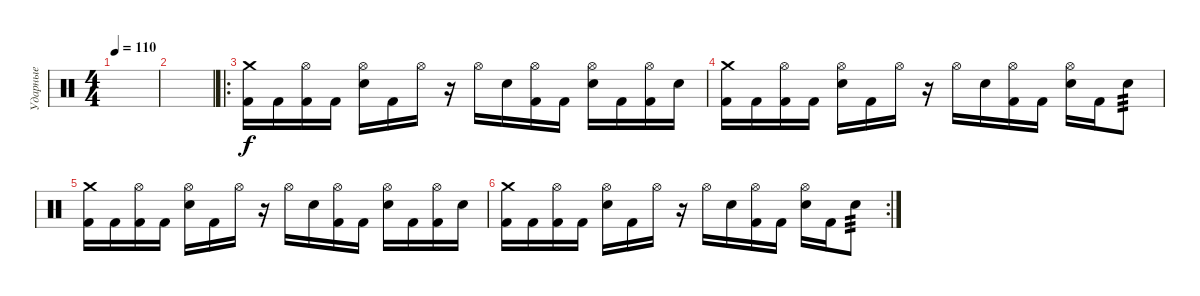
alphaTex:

\track ("Ударные" "Ударные") {instrument percussion}
\staff {score}
\articulation defaults
\ts (4 4)
\tempo 110
\clef neutral
\ks c
|
|
\ro
("Crash medium (hit)" "Kick (hit) 2").16 "Kick (hit) 2".16 ("Hi-Hat (open)" "Kick (hit) 2").16 "Kick (hit) 2".16 ("Hi-Hat (open)" "Electric Snare (hit)").16 "Kick (hit) 2".16 "Hi-Hat (open)".16 r.16 "Hi-Hat (open)".16 "Electric Snare (hit)".16 ("Hi-Hat (open)" "Kick (hit) 2").16 "Kick (hit) 2".16 ("Hi-Hat (open)" "Electric Snare (hit)").16 "Kick (hit) 2".16 ("Hi-Hat (open)" "Kick (hit) 2").16 "Electric Snare (hit)".16 |
("Crash medium (hit)" "Kick (hit) 2").16 "Kick (hit) 2".16 ("Hi-Hat (open)" "Kick (hit) 2").16 "Kick (hit) 2".16 ("Hi-Hat (open)" "Electric Snare (hit)").16 "Kick (hit) 2".16 "Hi-Hat (open)".16 r.16 "Hi-Hat (open)".16 "Electric Snare (hit)".16 ("Hi-Hat (open)" "Kick (hit) 2").16 "Kick (hit) 2".16 ("Hi-Hat (open)" "Electric Snare (hit)").16 "Kick (hit) 2".16 "Electric Snare (hit)".8{tp 3} |
("Crash medium (hit)" "Kick (hit) 2").16 "Kick (hit) 2".16 ("Hi-Hat (open)" "Kick (hit) 2").16 "Kick (hit) 2".16 ("Hi-Hat (open)" "Electric Snare (hit)").16 "Kick (hit) 2".16 "Hi-Hat (open)".16 r.16 "Hi-Hat (open)".16 "Electric Snare (hit)".16 ("Hi-Hat (open)" "Kick (hit) 2").16 "Kick (hit) 2".16 ("Hi-Hat (open)" "Electric Snare (hit)").16 "Kick (hit) 2".16 ("Hi-Hat (open)" "Kick (hit) 2").16 "Electric Snare (hit)".16 |
\rc 2
("Crash medium (hit)" "Kick (hit) 2").16 "Kick (hit) 2".16 ("Hi-Hat (open)" "Kick (hit) 2").16 "Kick (hit) 2".16 ("Hi-Hat (open)" "Electric Snare (hit)").16 "Kick (hit) 2".16 "Hi-Hat (open)".16 r.16 "Hi-Hat (open)".16 "Electric Snare (hit)".16 ("Hi-Hat (open)" "Kick (hit) 2").16 "Kick (hit) 2".16 ("Hi-Hat (open)" "Electric Snare (hit)").16 "Kick (hit) 2".16 "Electric Snare (hit)".8{tp 3}
